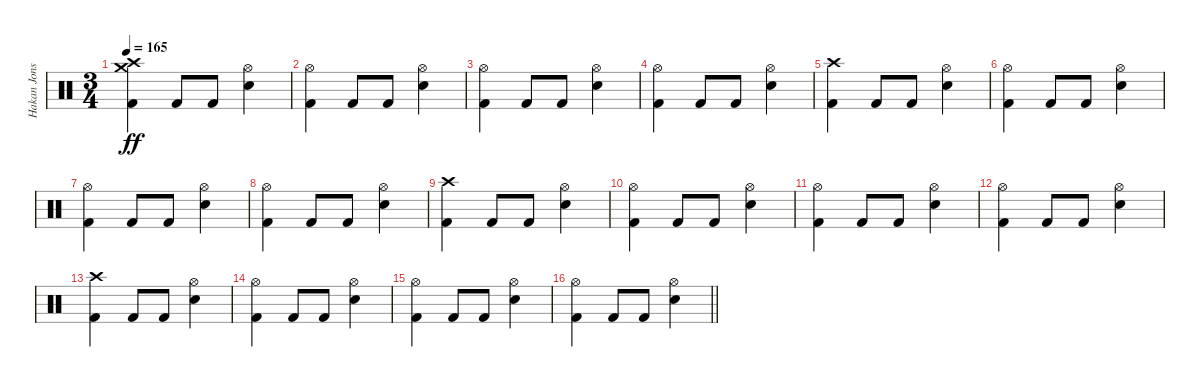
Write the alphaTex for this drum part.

\track ("Hakan Jonsson" "Hakan Jons") {instrument percussion}
\staff {score}
\articulation defaults
\ts (3 4)
\tempo 165
\clef neutral
\ks c
("Crash high (hit)" "Crash medium (hit)" "Kick (hit) 2").4{dy ff} "Kick (hit) 2".8 "Kick (hit) 2".8 ("Hi-Hat (open)" "Electric Snare (hit)").4 |
("Hi-Hat (open)" "Kick (hit) 2").4 "Kick (hit) 2".8 "Kick (hit) 2".8 ("Hi-Hat (open)" "Electric Snare (hit)").4 |
("Hi-Hat (open)" "Kick (hit) 2").4 "Kick (hit) 2".8 "Kick (hit) 2".8 ("Hi-Hat (open)" "Electric Snare (hit)").4 |
("Hi-Hat (open)" "Kick (hit) 2").4 "Kick (hit) 2".8 "Kick (hit) 2".8 ("Hi-Hat (open)" "Electric Snare (hit)").4 |
("Crash high (hit)" "Kick (hit) 2").4 "Kick (hit) 2".8 "Kick (hit) 2".8 ("Hi-Hat (open)" "Electric Snare (hit)").4 |
("Hi-Hat (open)" "Kick (hit) 2").4 "Kick (hit) 2".8 "Kick (hit) 2".8 ("Hi-Hat (open)" "Electric Snare (hit)").4 |
("Hi-Hat (open)" "Kick (hit) 2").4 "Kick (hit) 2".8 "Kick (hit) 2".8 ("Hi-Hat (open)" "Electric Snare (hit)").4 |
("Hi-Hat (open)" "Kick (hit) 2").4 "Kick (hit) 2".8 "Kick (hit) 2".8 ("Hi-Hat (open)" "Electric Snare (hit)").4 |
("Crash high (hit)" "Kick (hit) 2").4 "Kick (hit) 2".8 "Kick (hit) 2".8 ("Hi-Hat (open)" "Electric Snare (hit)").4 |
("Hi-Hat (open)" "Kick (hit) 2").4 "Kick (hit) 2".8 "Kick (hit) 2".8 ("Hi-Hat (open)" "Electric Snare (hit)").4 |
("Hi-Hat (open)" "Kick (hit) 2").4 "Kick (hit) 2".8 "Kick (hit) 2".8 ("Hi-Hat (open)" "Electric Snare (hit)").4 |
("Hi-Hat (open)" "Kick (hit) 2").4 "Kick (hit) 2".8 "Kick (hit) 2".8 ("Hi-Hat (open)" "Electric Snare (hit)").4 |
("Crash high (hit)" "Kick (hit) 2").4 "Kick (hit) 2".8 "Kick (hit) 2".8 ("Hi-Hat (open)" "Electric Snare (hit)").4 |
("Hi-Hat (open)" "Kick (hit) 2").4 "Kick (hit) 2".8 "Kick (hit) 2".8 ("Hi-Hat (open)" "Electric Snare (hit)").4 |
("Hi-Hat (open)" "Kick (hit) 2").4 "Kick (hit) 2".8 "Kick (hit) 2".8 ("Hi-Hat (open)" "Electric Snare (hit)").4 |
\barLineRight lightlight
("Hi-Hat (open)" "Kick (hit) 2").4 "Kick (hit) 2".8 "Kick (hit) 2".8 ("Hi-Hat (open)" "Electric Snare (hit)").4
